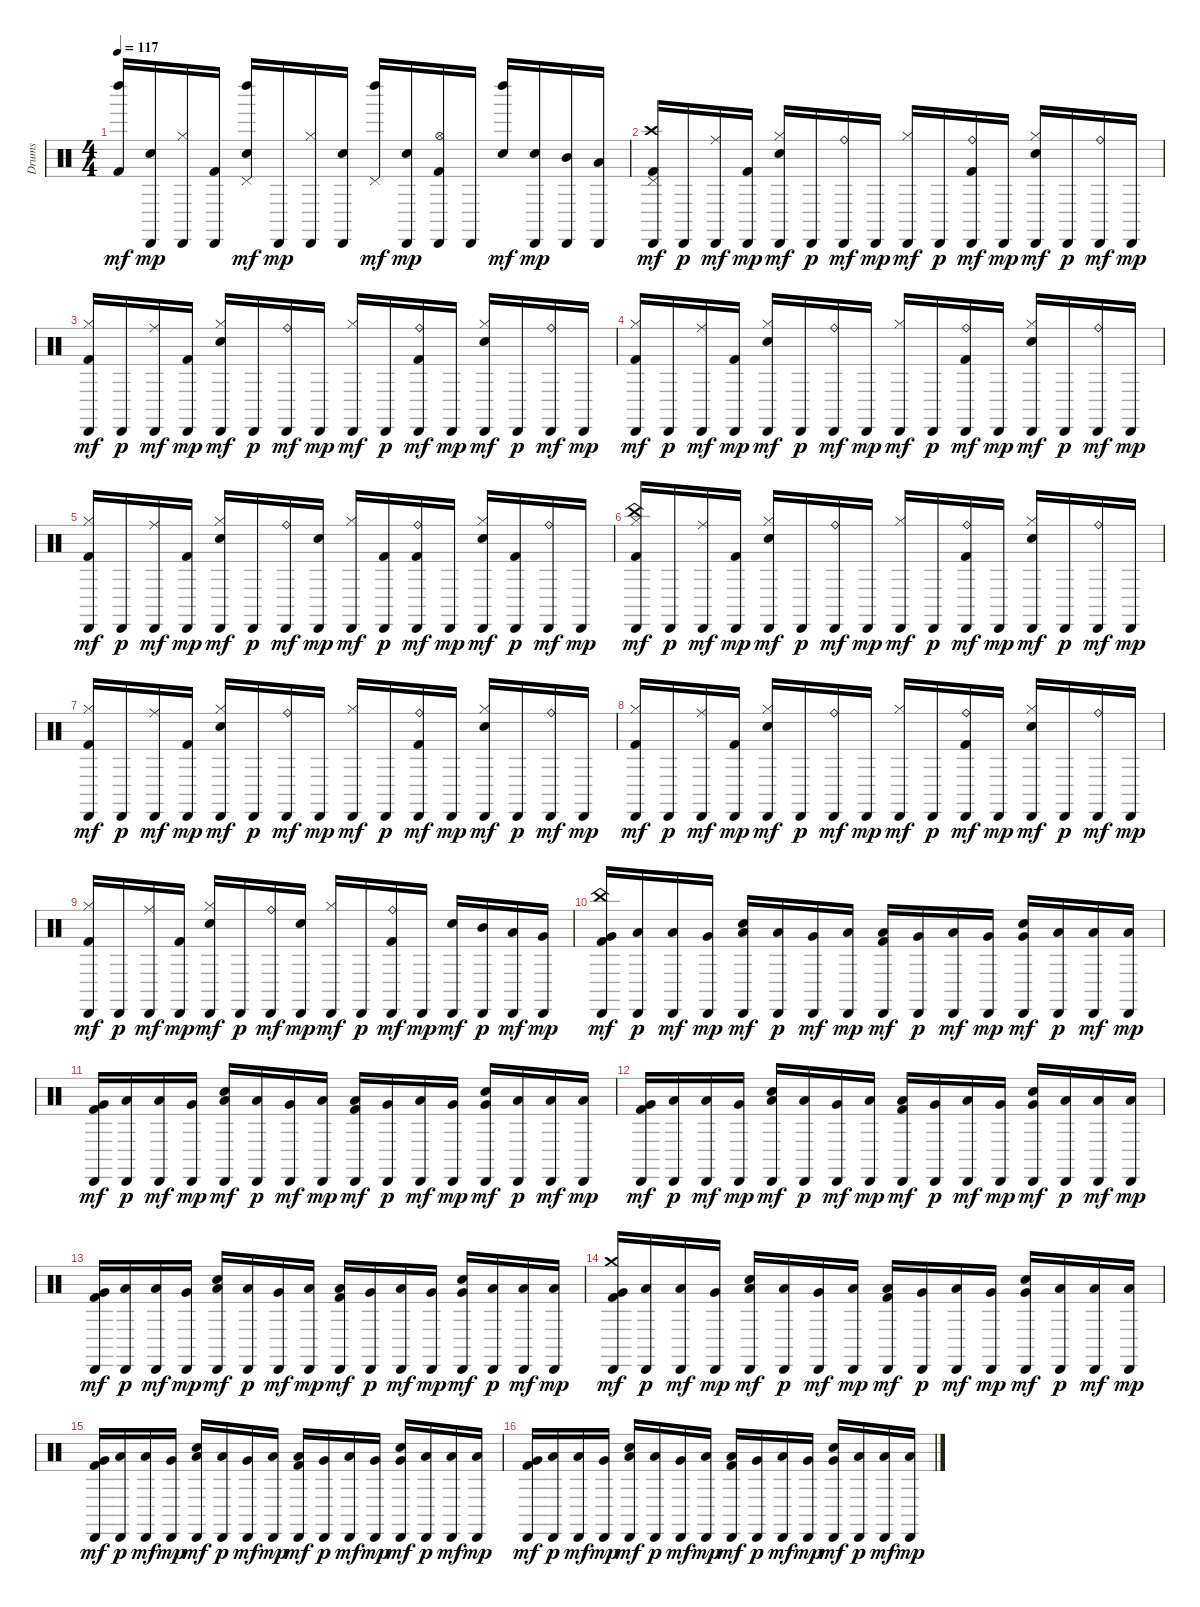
\track ("Drums" "Drums") {instrument percussion}
\staff {score}
\articulation defaults
\ts (4 4)
\tempo 117
\clef neutral
\ks c
("Kick (hit) 2" "Left Maraca (hit)").16{dy mf} ("Snare (hit) 2" "Cabasa (hit)").16{dy mp} ("Hi-Hat (closed)" "Cabasa (hit)").16 ("Kick (hit) 2" "Cabasa (hit)").16 ("Snare (hit) 2" "Pedal Hi-Hat (hit)" "Left Maraca (hit)").16{dy mf} "Cabasa (hit)".16{dy mp} ("Hi-Hat (closed)" "Cabasa (hit)").16 ("Snare (hit) 2" "Cabasa (hit)").16 ("Pedal Hi-Hat (hit)" "Left Maraca (hit)").16{dy mf} ("Snare (hit) 2" "Cabasa (hit)").16{dy mp} ("Hi-Hat (open)" "Kick (hit) 2" "Cabasa (hit)").16 "Cabasa (hit)".16 ("Snare (hit) 2" "Left Maraca (hit)").16{dy mf} ("Snare (hit) 2" "Cabasa (hit)").16{dy mp} ("Mid Tom (hit)" "Cabasa (hit)").16 ("Low Tom (hit)" "Cabasa (hit)").16 |
("Crash high (hit)" "Kick (hit) 2" "Pedal Hi-Hat (hit)" "Cabasa (hit)").16{dy mf} "Cabasa (hit)".16{dy p} ("Ride (middle)" "Cabasa (hit)").16{dy mf} ("Kick (hit) 2" "Cabasa (hit)").16{dy mp} ("Hi-Hat (closed)" "Snare (hit) 2" "Cabasa (hit)").16{dy mf} "Cabasa (hit)".16{dy p} ("Ride (bell)" "Cabasa (hit)").16{dy mf} "Cabasa (hit)".16{dy mp} ("Hi-Hat (closed)" "Cabasa (hit)").16{dy mf} "Cabasa (hit)".16{dy p} ("Ride (bell)" "Kick (hit) 2" "Cabasa (hit)").16{dy mf} "Cabasa (hit)".16{dy mp} ("Snare (hit) 2" "Hi-Hat (closed)" "Cabasa (hit)").16{dy mf} "Cabasa (hit)".16{dy p} ("Ride (bell)" "Cabasa (hit)").16{dy mf} "Cabasa (hit)".16{dy mp} |
("Kick (hit) 2" "Hi-Hat (closed)" "Cabasa (hit)").16{dy mf} "Cabasa (hit)".16{dy p} ("Ride (middle)" "Cabasa (hit)").16{dy mf} ("Kick (hit) 2" "Cabasa (hit)").16{dy mp} ("Snare (hit) 2" "Hi-Hat (closed)" "Cabasa (hit)").16{dy mf} "Cabasa (hit)".16{dy p} ("Ride (bell)" "Cabasa (hit)").16{dy mf} "Cabasa (hit)".16{dy mp} ("Hi-Hat (closed)" "Cabasa (hit)").16{dy mf} "Cabasa (hit)".16{dy p} ("Kick (hit) 2" "Ride (bell)" "Cabasa (hit)").16{dy mf} "Cabasa (hit)".16{dy mp} ("Snare (hit) 2" "Hi-Hat (closed)" "Cabasa (hit)").16{dy mf} "Cabasa (hit)".16{dy p} ("Ride (bell)" "Cabasa (hit)").16{dy mf} "Cabasa (hit)".16{dy mp} |
("Kick (hit) 2" "Hi-Hat (closed)" "Cabasa (hit)").16{dy mf} "Cabasa (hit)".16{dy p} ("Ride (middle)" "Cabasa (hit)").16{dy mf} ("Kick (hit) 2" "Cabasa (hit)").16{dy mp} ("Hi-Hat (closed)" "Snare (hit) 2" "Cabasa (hit)").16{dy mf} "Cabasa (hit)".16{dy p} ("Ride (bell)" "Cabasa (hit)").16{dy mf} "Cabasa (hit)".16{dy mp} ("Hi-Hat (closed)" "Cabasa (hit)").16{dy mf} "Cabasa (hit)".16{dy p} ("Kick (hit) 2" "Ride (bell)" "Cabasa (hit)").16{dy mf} "Cabasa (hit)".16{dy mp} ("Snare (hit) 2" "Hi-Hat (closed)" "Cabasa (hit)").16{dy mf} "Cabasa (hit)".16{dy p} ("Ride (bell)" "Cabasa (hit)").16{dy mf} "Cabasa (hit)".16{dy mp} |
("Hi-Hat (closed)" "Kick (hit) 2" "Cabasa (hit)").16{dy mf} "Cabasa (hit)".16{dy p} ("Ride (middle)" "Cabasa (hit)").16{dy mf} ("Kick (hit) 2" "Cabasa (hit)").16{dy mp} ("Snare (hit) 2" "Hi-Hat (closed)" "Cabasa (hit)").16{dy mf} "Cabasa (hit)".16{dy p} ("Ride (bell)" "Cabasa (hit)").16{dy mf} ("Snare (hit) 2" "Cabasa (hit)").16{dy mp} ("Hi-Hat (closed)" "Cabasa (hit)").16{dy mf} ("Kick (hit) 2" "Cabasa (hit)").16{dy p} ("Ride (bell)" "Kick (hit) 2" "Cabasa (hit)").16{dy mf} "Cabasa (hit)".16{dy mp} ("Hi-Hat (closed)" "Snare (hit) 2" "Cabasa (hit)").16{dy mf} ("Kick (hit) 2" "Cabasa (hit)").16{dy p} ("Ride (bell)" "Cabasa (hit)").16{dy mf} "Cabasa (hit)".16{dy mp} |
("China (hit)" "Hi-Hat (closed)" "Kick (hit) 2" "Cabasa (hit)").16{dy mf} "Cabasa (hit)".16{dy p} ("Ride (middle)" "Cabasa (hit)").16{dy mf} ("Kick (hit) 2" "Cabasa (hit)").16{dy mp} ("Hi-Hat (closed)" "Snare (hit) 2" "Cabasa (hit)").16{dy mf} "Cabasa (hit)".16{dy p} ("Ride (bell)" "Cabasa (hit)").16{dy mf} "Cabasa (hit)".16{dy mp} ("Hi-Hat (closed)" "Cabasa (hit)").16{dy mf} "Cabasa (hit)".16{dy p} ("Kick (hit) 2" "Ride (bell)" "Cabasa (hit)").16{dy mf} "Cabasa (hit)".16{dy mp} ("Hi-Hat (closed)" "Snare (hit) 2" "Cabasa (hit)").16{dy mf} "Cabasa (hit)".16{dy p} ("Ride (bell)" "Cabasa (hit)").16{dy mf} "Cabasa (hit)".16{dy mp} |
("Kick (hit) 2" "Hi-Hat (closed)" "Cabasa (hit)").16{dy mf} "Cabasa (hit)".16{dy p} ("Ride (middle)" "Cabasa (hit)").16{dy mf} ("Kick (hit) 2" "Cabasa (hit)").16{dy mp} ("Snare (hit) 2" "Hi-Hat (closed)" "Cabasa (hit)").16{dy mf} "Cabasa (hit)".16{dy p} ("Ride (bell)" "Cabasa (hit)").16{dy mf} "Cabasa (hit)".16{dy mp} ("Hi-Hat (closed)" "Cabasa (hit)").16{dy mf} "Cabasa (hit)".16{dy p} ("Kick (hit) 2" "Ride (bell)" "Cabasa (hit)").16{dy mf} "Cabasa (hit)".16{dy mp} ("Hi-Hat (closed)" "Snare (hit) 2" "Cabasa (hit)").16{dy mf} "Cabasa (hit)".16{dy p} ("Ride (bell)" "Cabasa (hit)").16{dy mf} "Cabasa (hit)".16{dy mp} |
("Hi-Hat (closed)" "Kick (hit) 2" "Cabasa (hit)").16{dy mf} "Cabasa (hit)".16{dy p} ("Ride (middle)" "Cabasa (hit)").16{dy mf} ("Kick (hit) 2" "Cabasa (hit)").16{dy mp} ("Snare (hit) 2" "Hi-Hat (closed)" "Cabasa (hit)").16{dy mf} "Cabasa (hit)".16{dy p} ("Ride (bell)" "Cabasa (hit)").16{dy mf} "Cabasa (hit)".16{dy mp} ("Hi-Hat (closed)" "Cabasa (hit)").16{dy mf} "Cabasa (hit)".16{dy p} ("Kick (hit) 2" "Ride (bell)" "Cabasa (hit)").16{dy mf} "Cabasa (hit)".16{dy mp} ("Hi-Hat (closed)" "Snare (hit) 2" "Cabasa (hit)").16{dy mf} "Cabasa (hit)".16{dy p} ("Ride (bell)" "Cabasa (hit)").16{dy mf} "Cabasa (hit)".16{dy mp} |
("Hi-Hat (closed)" "Kick (hit) 2" "Cabasa (hit)").16{dy mf} "Cabasa (hit)".16{dy p} ("Ride (middle)" "Cabasa (hit)").16{dy mf} ("Kick (hit) 2" "Cabasa (hit)").16{dy mp} ("Hi-Hat (closed)" "Snare (hit) 2" "Cabasa (hit)").16{dy mf} "Cabasa (hit)".16{dy p} ("Ride (bell)" "Cabasa (hit)").16{dy mf} ("Snare (hit) 2" "Cabasa (hit)").16{dy mp} ("Hi-Hat (closed)" "Cabasa (hit)").16{dy mf} "Cabasa (hit)".16{dy p} ("Ride (bell)" "Kick (hit) 2" "Cabasa (hit)").16{dy mf} "Cabasa (hit)".16{dy mp} ("Snare (hit) 2" "Cabasa (hit)").16{dy mf} ("Mid Tom (hit)" "Cabasa (hit)").16{dy p} ("Low Tom (hit)" "Cabasa (hit)").16{dy mf} ("Very Low Tom (hit)" "Cabasa (hit)").16{dy mp} |
("Very Low Tom (hit)" "China (hit)" "Kick (hit) 2" "Cabasa (hit)").16{dy mf} ("Low Floor Tom (hit)" "Cabasa (hit)").16{dy p} ("Low Floor Tom (hit)" "Cabasa (hit)").16{dy mf} ("Very Low Tom (hit)" "Cabasa (hit)").16{dy mp} ("Low Floor Tom (hit)" "Snare (hit) 2" "Cabasa (hit)").16{dy mf} ("Low Floor Tom (hit)" "Cabasa (hit)").16{dy p} ("Very Low Tom (hit)" "Cabasa (hit)").16{dy mf} ("Low Floor Tom (hit)" "Cabasa (hit)").16{dy mp} ("Kick (hit) 2" "Low Floor Tom (hit)" "Cabasa (hit)").16{dy mf} ("Very Low Tom (hit)" "Cabasa (hit)").16{dy p} ("Low Floor Tom (hit)" "Cabasa (hit)").16{dy mf} ("Very Low Tom (hit)" "Cabasa (hit)").16{dy mp} ("Snare (hit) 2" "Very Low Tom (hit)" "Cabasa (hit)").16{dy mf} ("Low Floor Tom (hit)" "Cabasa (hit)").16{dy p} ("Low Floor Tom (hit)" "Cabasa (hit)").16{dy mf} ("Low Floor Tom (hit)" "Cabasa (hit)").16{dy mp} |
("Kick (hit) 2" "Very Low Tom (hit)" "Cabasa (hit)").16{dy mf} ("Low Floor Tom (hit)" "Cabasa (hit)").16{dy p} ("Low Floor Tom (hit)" "Cabasa (hit)").16{dy mf} ("Very Low Tom (hit)" "Cabasa (hit)").16{dy mp} ("Low Floor Tom (hit)" "Snare (hit) 2" "Cabasa (hit)").16{dy mf} ("Low Floor Tom (hit)" "Cabasa (hit)").16{dy p} ("Very Low Tom (hit)" "Cabasa (hit)").16{dy mf} ("Low Floor Tom (hit)" "Cabasa (hit)").16{dy mp} ("Low Floor Tom (hit)" "Kick (hit) 2" "Cabasa (hit)").16{dy mf} ("Very Low Tom (hit)" "Cabasa (hit)").16{dy p} ("Low Floor Tom (hit)" "Cabasa (hit)").16{dy mf} ("Very Low Tom (hit)" "Cabasa (hit)").16{dy mp} ("Snare (hit) 2" "Very Low Tom (hit)" "Cabasa (hit)").16{dy mf} ("Low Floor Tom (hit)" "Cabasa (hit)").16{dy p} ("Low Floor Tom (hit)" "Cabasa (hit)").16{dy mf} ("Low Floor Tom (hit)" "Cabasa (hit)").16{dy mp} |
("Very Low Tom (hit)" "Kick (hit) 2" "Cabasa (hit)").16{dy mf} ("Low Floor Tom (hit)" "Cabasa (hit)").16{dy p} ("Low Floor Tom (hit)" "Cabasa (hit)").16{dy mf} ("Very Low Tom (hit)" "Cabasa (hit)").16{dy mp} ("Low Floor Tom (hit)" "Snare (hit) 2" "Cabasa (hit)").16{dy mf} ("Low Floor Tom (hit)" "Cabasa (hit)").16{dy p} ("Very Low Tom (hit)" "Cabasa (hit)").16{dy mf} ("Low Floor Tom (hit)" "Cabasa (hit)").16{dy mp} ("Low Floor Tom (hit)" "Kick (hit) 2" "Cabasa (hit)").16{dy mf} ("Very Low Tom (hit)" "Cabasa (hit)").16{dy p} ("Low Floor Tom (hit)" "Cabasa (hit)").16{dy mf} ("Very Low Tom (hit)" "Cabasa (hit)").16{dy mp} ("Snare (hit) 2" "Very Low Tom (hit)" "Cabasa (hit)").16{dy mf} ("Low Floor Tom (hit)" "Cabasa (hit)").16{dy p} ("Low Floor Tom (hit)" "Cabasa (hit)").16{dy mf} ("Low Floor Tom (hit)" "Cabasa (hit)").16{dy mp} |
("Very Low Tom (hit)" "Kick (hit) 2" "Cabasa (hit)").16{dy mf} ("Low Floor Tom (hit)" "Cabasa (hit)").16{dy p} ("Low Floor Tom (hit)" "Cabasa (hit)").16{dy mf} ("Very Low Tom (hit)" "Cabasa (hit)").16{dy mp} ("Low Floor Tom (hit)" "Snare (hit) 2" "Cabasa (hit)").16{dy mf} ("Low Floor Tom (hit)" "Cabasa (hit)").16{dy p} ("Very Low Tom (hit)" "Cabasa (hit)").16{dy mf} ("Low Floor Tom (hit)" "Cabasa (hit)").16{dy mp} ("Kick (hit) 2" "Low Floor Tom (hit)" "Cabasa (hit)").16{dy mf} ("Very Low Tom (hit)" "Cabasa (hit)").16{dy p} ("Low Floor Tom (hit)" "Cabasa (hit)").16{dy mf} ("Very Low Tom (hit)" "Cabasa (hit)").16{dy mp} ("Snare (hit) 2" "Very Low Tom (hit)" "Cabasa (hit)").16{dy mf} ("Low Floor Tom (hit)" "Cabasa (hit)").16{dy p} ("Low Floor Tom (hit)" "Cabasa (hit)").16{dy mf} ("Low Floor Tom (hit)" "Cabasa (hit)").16{dy mp} |
("Very Low Tom (hit)" "Kick (hit) 2" "Crash medium (hit)" "Cabasa (hit)").16{dy mf} ("Low Floor Tom (hit)" "Cabasa (hit)").16{dy p} ("Low Floor Tom (hit)" "Cabasa (hit)").16{dy mf} ("Very Low Tom (hit)" "Cabasa (hit)").16{dy mp} ("Snare (hit) 2" "Low Floor Tom (hit)" "Cabasa (hit)").16{dy mf} ("Low Floor Tom (hit)" "Cabasa (hit)").16{dy p} ("Very Low Tom (hit)" "Cabasa (hit)").16{dy mf} ("Low Floor Tom (hit)" "Cabasa (hit)").16{dy mp} ("Kick (hit) 2" "Low Floor Tom (hit)" "Cabasa (hit)").16{dy mf} ("Very Low Tom (hit)" "Cabasa (hit)").16{dy p} ("Low Floor Tom (hit)" "Cabasa (hit)").16{dy mf} ("Very Low Tom (hit)" "Cabasa (hit)").16{dy mp} ("Snare (hit) 2" "Very Low Tom (hit)" "Cabasa (hit)").16{dy mf} ("Low Floor Tom (hit)" "Cabasa (hit)").16{dy p} ("Low Floor Tom (hit)" "Cabasa (hit)").16{dy mf} ("Low Floor Tom (hit)" "Cabasa (hit)").16{dy mp} |
("Very Low Tom (hit)" "Kick (hit) 2" "Cabasa (hit)").16{dy mf} ("Low Floor Tom (hit)" "Cabasa (hit)").16{dy p} ("Low Floor Tom (hit)" "Cabasa (hit)").16{dy mf} ("Very Low Tom (hit)" "Cabasa (hit)").16{dy mp} ("Low Floor Tom (hit)" "Snare (hit) 2" "Cabasa (hit)").16{dy mf} ("Low Floor Tom (hit)" "Cabasa (hit)").16{dy p} ("Very Low Tom (hit)" "Cabasa (hit)").16{dy mf} ("Low Floor Tom (hit)" "Cabasa (hit)").16{dy mp} ("Kick (hit) 2" "Low Floor Tom (hit)" "Cabasa (hit)").16{dy mf} ("Very Low Tom (hit)" "Cabasa (hit)").16{dy p} ("Low Floor Tom (hit)" "Cabasa (hit)").16{dy mf} ("Very Low Tom (hit)" "Cabasa (hit)").16{dy mp} ("Snare (hit) 2" "Very Low Tom (hit)" "Cabasa (hit)").16{dy mf} ("Low Floor Tom (hit)" "Cabasa (hit)").16{dy p} ("Low Floor Tom (hit)" "Cabasa (hit)").16{dy mf} ("Low Floor Tom (hit)" "Cabasa (hit)").16{dy mp} |
("Kick (hit) 2" "Very Low Tom (hit)" "Cabasa (hit)").16{dy mf} ("Low Floor Tom (hit)" "Cabasa (hit)").16{dy p} ("Low Floor Tom (hit)" "Cabasa (hit)").16{dy mf} ("Very Low Tom (hit)" "Cabasa (hit)").16{dy mp} ("Low Floor Tom (hit)" "Snare (hit) 2" "Cabasa (hit)").16{dy mf} ("Low Floor Tom (hit)" "Cabasa (hit)").16{dy p} ("Very Low Tom (hit)" "Cabasa (hit)").16{dy mf} ("Low Floor Tom (hit)" "Cabasa (hit)").16{dy mp} ("Kick (hit) 2" "Low Floor Tom (hit)" "Cabasa (hit)").16{dy mf} ("Very Low Tom (hit)" "Cabasa (hit)").16{dy p} ("Low Floor Tom (hit)" "Cabasa (hit)").16{dy mf} ("Very Low Tom (hit)" "Cabasa (hit)").16{dy mp} ("Very Low Tom (hit)" "Snare (hit) 2" "Cabasa (hit)").16{dy mf} ("Low Floor Tom (hit)" "Cabasa (hit)").16{dy p} ("Low Floor Tom (hit)" "Cabasa (hit)").16{dy mf} ("Low Floor Tom (hit)" "Cabasa (hit)").16{dy mp}
